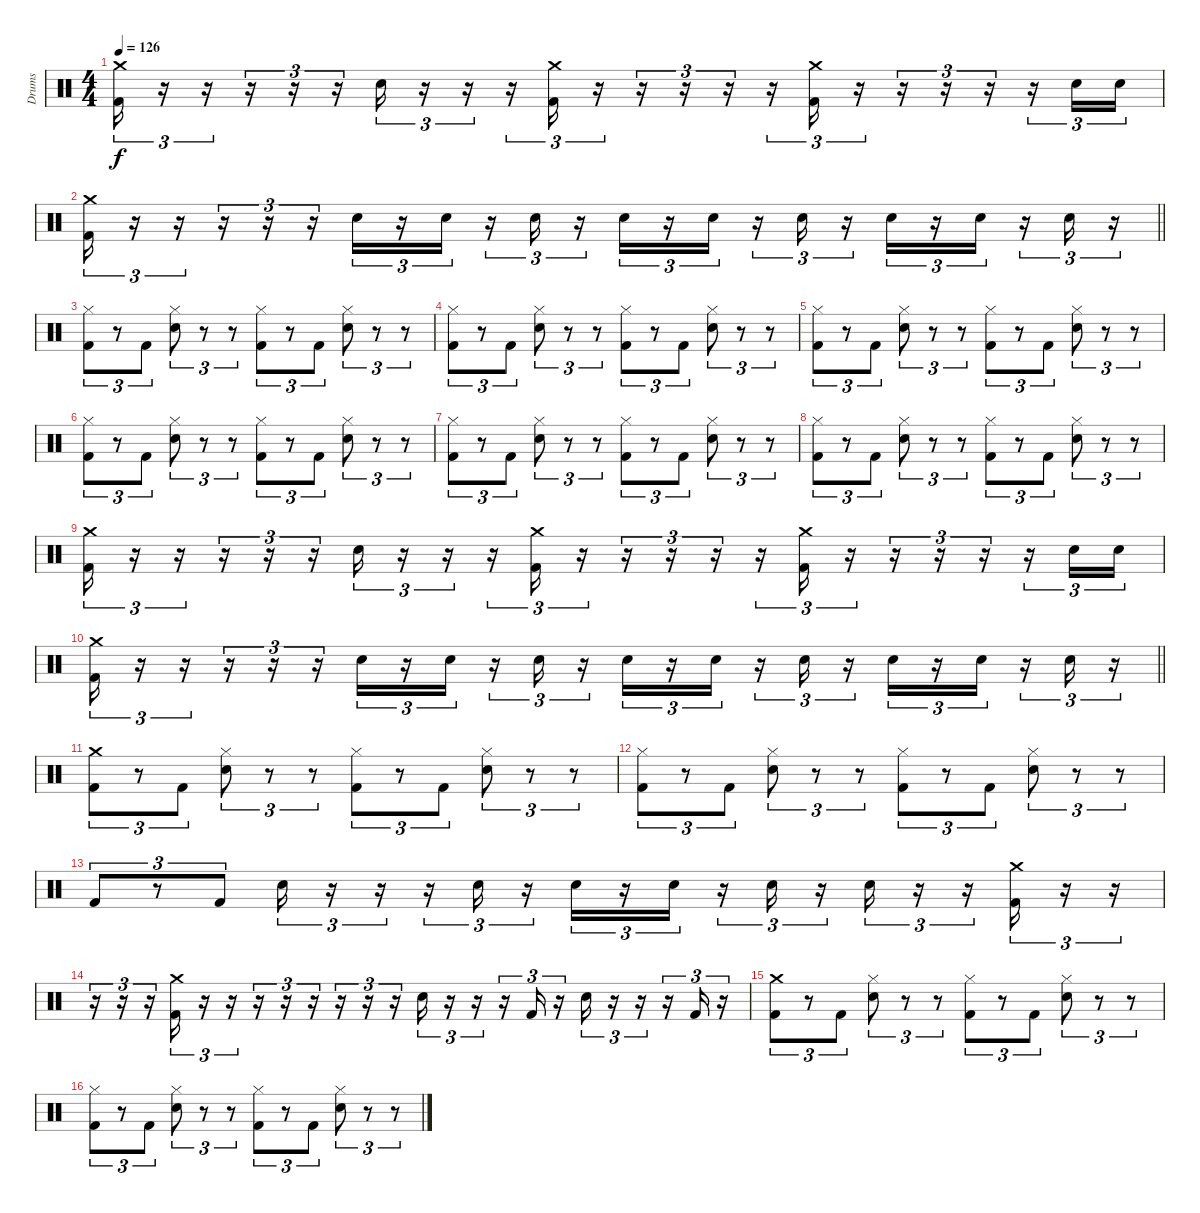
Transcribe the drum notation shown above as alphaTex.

\track ("Drums" "Drums") {instrument percussion}
\staff {score}
\articulation defaults
\ts (4 4)
\tempo 126
\clef neutral
\ks c
("Crash medium (hit)" "Kick (hit) 2").16{tu (3 2) dy f} r.16{tu (3 2)} r.16{tu (3 2)} r.16{tu (3 2)} r.16{tu (3 2)} r.16{tu (3 2)} "Snare (hit) 2".16{tu (3 2)} r.16{tu (3 2)} r.16{tu (3 2)} r.16{tu (3 2)} ("Crash medium (hit)" "Kick (hit) 2").16{tu (3 2)} r.16{tu (3 2)} r.16{tu (3 2)} r.16{tu (3 2)} r.16{tu (3 2)} r.16{tu (3 2)} ("Crash medium (hit)" "Kick (hit) 2").16{tu (3 2)} r.16{tu (3 2)} r.16{tu (3 2)} r.16{tu (3 2)} r.16{tu (3 2)} r.16{tu (3 2)} "Snare (hit) 2".16{tu (3 2)} "Snare (hit) 2".16{tu (3 2)} |
\barLineRight lightlight
("Crash medium (hit)" "Kick (hit) 2").16{tu (3 2)} r.16{tu (3 2)} r.16{tu (3 2)} r.16{tu (3 2)} r.16{tu (3 2)} r.16{tu (3 2)} "Snare (hit) 2".16{tu (3 2)} r.16{tu (3 2)} "Snare (hit) 2".16{tu (3 2)} r.16{tu (3 2)} "Snare (hit) 2".16{tu (3 2)} r.16{tu (3 2)} "Snare (hit) 2".16{tu (3 2)} r.16{tu (3 2)} "Snare (hit) 2".16{tu (3 2)} r.16{tu (3 2)} "Snare (hit) 2".16{tu (3 2)} r.16{tu (3 2)} "Snare (hit) 2".16{tu (3 2)} r.16{tu (3 2)} "Snare (hit) 2".16{tu (3 2)} r.16{tu (3 2)} "Snare (hit) 2".16{tu (3 2)} r.16{tu (3 2)} |
("Hi-Hat (closed)" "Kick (hit) 2").8{tu (3 2)} r.8{tu (3 2)} "Kick (hit) 2".8{tu (3 2)} ("Hi-Hat (closed)" "Snare (hit) 2").8{tu (3 2)} r.8{tu (3 2)} r.8{tu (3 2)} ("Hi-Hat (closed)" "Kick (hit) 2").8{tu (3 2)} r.8{tu (3 2)} "Kick (hit) 2".8{tu (3 2)} ("Hi-Hat (closed)" "Snare (hit) 2").8{tu (3 2)} r.8{tu (3 2)} r.8{tu (3 2)} |
("Hi-Hat (closed)" "Kick (hit) 2").8{tu (3 2)} r.8{tu (3 2)} "Kick (hit) 2".8{tu (3 2)} ("Hi-Hat (closed)" "Snare (hit) 2").8{tu (3 2)} r.8{tu (3 2)} r.8{tu (3 2)} ("Hi-Hat (closed)" "Kick (hit) 2").8{tu (3 2)} r.8{tu (3 2)} "Kick (hit) 2".8{tu (3 2)} ("Hi-Hat (closed)" "Snare (hit) 2").8{tu (3 2)} r.8{tu (3 2)} r.8{tu (3 2)} |
("Hi-Hat (closed)" "Kick (hit) 2").8{tu (3 2)} r.8{tu (3 2)} "Kick (hit) 2".8{tu (3 2)} ("Hi-Hat (closed)" "Snare (hit) 2").8{tu (3 2)} r.8{tu (3 2)} r.8{tu (3 2)} ("Hi-Hat (closed)" "Kick (hit) 2").8{tu (3 2)} r.8{tu (3 2)} "Kick (hit) 2".8{tu (3 2)} ("Hi-Hat (closed)" "Snare (hit) 2").8{tu (3 2)} r.8{tu (3 2)} r.8{tu (3 2)} |
("Hi-Hat (closed)" "Kick (hit) 2").8{tu (3 2)} r.8{tu (3 2)} "Kick (hit) 2".8{tu (3 2)} ("Hi-Hat (closed)" "Snare (hit) 2").8{tu (3 2)} r.8{tu (3 2)} r.8{tu (3 2)} ("Hi-Hat (closed)" "Kick (hit) 2").8{tu (3 2)} r.8{tu (3 2)} "Kick (hit) 2".8{tu (3 2)} ("Hi-Hat (closed)" "Snare (hit) 2").8{tu (3 2)} r.8{tu (3 2)} r.8{tu (3 2)} |
("Hi-Hat (closed)" "Kick (hit) 2").8{tu (3 2)} r.8{tu (3 2)} "Kick (hit) 2".8{tu (3 2)} ("Hi-Hat (closed)" "Snare (hit) 2").8{tu (3 2)} r.8{tu (3 2)} r.8{tu (3 2)} ("Hi-Hat (closed)" "Kick (hit) 2").8{tu (3 2)} r.8{tu (3 2)} "Kick (hit) 2".8{tu (3 2)} ("Hi-Hat (closed)" "Snare (hit) 2").8{tu (3 2)} r.8{tu (3 2)} r.8{tu (3 2)} |
("Hi-Hat (closed)" "Kick (hit) 2").8{tu (3 2)} r.8{tu (3 2)} "Kick (hit) 2".8{tu (3 2)} ("Hi-Hat (closed)" "Snare (hit) 2").8{tu (3 2)} r.8{tu (3 2)} r.8{tu (3 2)} ("Hi-Hat (closed)" "Kick (hit) 2").8{tu (3 2)} r.8{tu (3 2)} "Kick (hit) 2".8{tu (3 2)} ("Hi-Hat (closed)" "Snare (hit) 2").8{tu (3 2)} r.8{tu (3 2)} r.8{tu (3 2)} |
("Crash medium (hit)" "Kick (hit) 2").16{tu (3 2)} r.16{tu (3 2)} r.16{tu (3 2)} r.16{tu (3 2)} r.16{tu (3 2)} r.16{tu (3 2)} "Snare (hit) 2".16{tu (3 2)} r.16{tu (3 2)} r.16{tu (3 2)} r.16{tu (3 2)} ("Crash medium (hit)" "Kick (hit) 2").16{tu (3 2)} r.16{tu (3 2)} r.16{tu (3 2)} r.16{tu (3 2)} r.16{tu (3 2)} r.16{tu (3 2)} ("Crash medium (hit)" "Kick (hit) 2").16{tu (3 2)} r.16{tu (3 2)} r.16{tu (3 2)} r.16{tu (3 2)} r.16{tu (3 2)} r.16{tu (3 2)} "Snare (hit) 2".16{tu (3 2)} "Snare (hit) 2".16{tu (3 2)} |
\barLineRight lightlight
("Crash medium (hit)" "Kick (hit) 2").16{tu (3 2)} r.16{tu (3 2)} r.16{tu (3 2)} r.16{tu (3 2)} r.16{tu (3 2)} r.16{tu (3 2)} "Snare (hit) 2".16{tu (3 2)} r.16{tu (3 2)} "Snare (hit) 2".16{tu (3 2)} r.16{tu (3 2)} "Snare (hit) 2".16{tu (3 2)} r.16{tu (3 2)} "Snare (hit) 2".16{tu (3 2)} r.16{tu (3 2)} "Snare (hit) 2".16{tu (3 2)} r.16{tu (3 2)} "Snare (hit) 2".16{tu (3 2)} r.16{tu (3 2)} "Snare (hit) 2".16{tu (3 2)} r.16{tu (3 2)} "Snare (hit) 2".16{tu (3 2)} r.16{tu (3 2)} "Snare (hit) 2".16{tu (3 2)} r.16{tu (3 2)} |
("Crash medium (hit)" "Kick (hit) 2").8{tu (3 2)} r.8{tu (3 2)} "Kick (hit) 2".8{tu (3 2)} ("Hi-Hat (closed)" "Snare (hit) 2").8{tu (3 2)} r.8{tu (3 2)} r.8{tu (3 2)} ("Hi-Hat (closed)" "Kick (hit) 2").8{tu (3 2)} r.8{tu (3 2)} "Kick (hit) 2".8{tu (3 2)} ("Hi-Hat (closed)" "Snare (hit) 2").8{tu (3 2)} r.8{tu (3 2)} r.8{tu (3 2)} |
("Hi-Hat (closed)" "Kick (hit) 2").8{tu (3 2)} r.8{tu (3 2)} "Kick (hit) 2".8{tu (3 2)} ("Hi-Hat (closed)" "Snare (hit) 2").8{tu (3 2)} r.8{tu (3 2)} r.8{tu (3 2)} ("Hi-Hat (closed)" "Kick (hit) 2").8{tu (3 2)} r.8{tu (3 2)} "Kick (hit) 2".8{tu (3 2)} ("Hi-Hat (closed)" "Snare (hit) 2").8{tu (3 2)} r.8{tu (3 2)} r.8{tu (3 2)} |
"Kick (hit) 2".8{tu (3 2)} r.8{tu (3 2)} "Kick (hit) 2".8{tu (3 2)} "Snare (hit) 2".16{tu (3 2)} r.16{tu (3 2)} r.16{tu (3 2)} r.16{tu (3 2)} "Snare (hit) 2".16{tu (3 2)} r.16{tu (3 2)} "Snare (hit) 2".16{tu (3 2)} r.16{tu (3 2)} "Snare (hit) 2".16{tu (3 2)} r.16{tu (3 2)} "Snare (hit) 2".16{tu (3 2)} r.16{tu (3 2)} "Snare (hit) 2".16{tu (3 2)} r.16{tu (3 2)} r.16{tu (3 2)} ("Crash medium (hit)" "Kick (hit) 2").16{tu (3 2)} r.16{tu (3 2)} r.16{tu (3 2)} |
r.16{tu (3 2)} r.16{tu (3 2)} r.16{tu (3 2)} ("Crash medium (hit)" "Kick (hit) 2").16{tu (3 2)} r.16{tu (3 2)} r.16{tu (3 2)} r.16{tu (3 2)} r.16{tu (3 2)} r.16{tu (3 2)} r.16{tu (3 2)} r.16{tu (3 2)} r.16{tu (3 2)} "Snare (hit) 2".16{tu (3 2)} r.16{tu (3 2)} r.16{tu (3 2)} r.16{tu (3 2)} "Kick (hit) 2".16{tu (3 2)} r.16{tu (3 2)} "Snare (hit) 2".16{tu (3 2)} r.16{tu (3 2)} r.16{tu (3 2)} r.16{tu (3 2)} "Kick (hit) 2".16{tu (3 2)} r.16{tu (3 2)} |
("Crash medium (hit)" "Kick (hit) 2").8{tu (3 2)} r.8{tu (3 2)} "Kick (hit) 2".8{tu (3 2)} ("Hi-Hat (closed)" "Snare (hit) 2").8{tu (3 2)} r.8{tu (3 2)} r.8{tu (3 2)} ("Hi-Hat (closed)" "Kick (hit) 2").8{tu (3 2)} r.8{tu (3 2)} "Kick (hit) 2".8{tu (3 2)} ("Hi-Hat (closed)" "Snare (hit) 2").8{tu (3 2)} r.8{tu (3 2)} r.8{tu (3 2)} |
("Hi-Hat (closed)" "Kick (hit) 2").8{tu (3 2)} r.8{tu (3 2)} "Kick (hit) 2".8{tu (3 2)} ("Hi-Hat (closed)" "Snare (hit) 2").8{tu (3 2)} r.8{tu (3 2)} r.8{tu (3 2)} ("Hi-Hat (closed)" "Kick (hit) 2").8{tu (3 2)} r.8{tu (3 2)} "Kick (hit) 2".8{tu (3 2)} ("Hi-Hat (closed)" "Snare (hit) 2").8{tu (3 2)} r.8{tu (3 2)} r.8{tu (3 2)}
